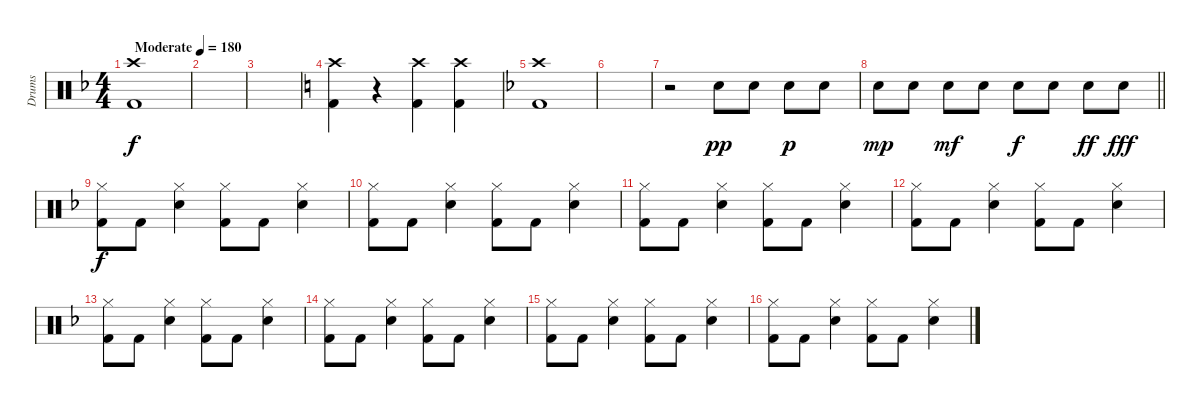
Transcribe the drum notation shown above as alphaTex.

\track ("Drums" "Drums") {instrument percussion}
\staff {score}
\articulation defaults
\ts (4 4)
\tempo (180 "Moderate")
\clef neutral
\ks dminor
("Crash high (hit)" "Kick (hit) 2").1{dy f} |
|
|
\ks aminor
("Crash high (hit)" "Kick (hit) 2").4 r.4 ("Crash high (hit)" "Kick (hit) 2").4 ("Crash high (hit)" "Kick (hit) 2").4 |
\ks dminor
("Crash high (hit)" "Kick (hit) 2").1 |
|
r.2 "Snare (hit) 2".8{dy pp} "Snare (hit) 2".8 "Snare (hit) 2".8{dy p} "Snare (hit) 2".8 |
\barLineRight lightlight "Snare (hit) 2".8{dy mp} "Snare (hit) 2".8 "Snare (hit) 2".8{dy mf} "Snare (hit) 2".8 "Snare (hit) 2".8{dy f} "Snare (hit) 2".8 "Snare (hit) 2".8{dy ff} "Snare (hit) 2".8{dy fff}
|
("Hi-Hat (closed)" "Kick (hit) 2").8{dy f} "Kick (hit) 2".8 ("Hi-Hat (closed)" "Snare (hit) 2").4 ("Hi-Hat (closed)" "Kick (hit) 2").8 "Kick (hit) 2".8 ("Hi-Hat (closed)" "Snare (hit) 2").4 |
("Hi-Hat (closed)" "Kick (hit) 2").8 "Kick (hit) 2".8 ("Hi-Hat (closed)" "Snare (hit) 2").4 ("Hi-Hat (closed)" "Kick (hit) 2").8 "Kick (hit) 2".8 ("Hi-Hat (closed)" "Snare (hit) 2").4 |
("Hi-Hat (closed)" "Kick (hit) 2").8 "Kick (hit) 2".8 ("Hi-Hat (closed)" "Snare (hit) 2").4 ("Hi-Hat (closed)" "Kick (hit) 2").8 "Kick (hit) 2".8 ("Hi-Hat (closed)" "Snare (hit) 2").4 |
("Hi-Hat (closed)" "Kick (hit) 2").8 "Kick (hit) 2".8 ("Hi-Hat (closed)" "Snare (hit) 2").4 ("Hi-Hat (closed)" "Kick (hit) 2").8 "Kick (hit) 2".8 ("Hi-Hat (closed)" "Snare (hit) 2").4 |
("Hi-Hat (closed)" "Kick (hit) 2").8 "Kick (hit) 2".8 ("Hi-Hat (closed)" "Snare (hit) 2").4 ("Hi-Hat (closed)" "Kick (hit) 2").8 "Kick (hit) 2".8 ("Hi-Hat (closed)" "Snare (hit) 2").4 |
("Hi-Hat (closed)" "Kick (hit) 2").8 "Kick (hit) 2".8 ("Hi-Hat (closed)" "Snare (hit) 2").4 ("Hi-Hat (closed)" "Kick (hit) 2").8 "Kick (hit) 2".8 ("Hi-Hat (closed)" "Snare (hit) 2").4 |
("Hi-Hat (closed)" "Kick (hit) 2").8 "Kick (hit) 2".8 ("Hi-Hat (closed)" "Snare (hit) 2").4 ("Hi-Hat (closed)" "Kick (hit) 2").8 "Kick (hit) 2".8 ("Hi-Hat (closed)" "Snare (hit) 2").4 |
("Hi-Hat (closed)" "Kick (hit) 2").8 "Kick (hit) 2".8 ("Hi-Hat (closed)" "Snare (hit) 2").4 ("Hi-Hat (closed)" "Kick (hit) 2").8 "Kick (hit) 2".8 ("Hi-Hat (closed)" "Snare (hit) 2").4
